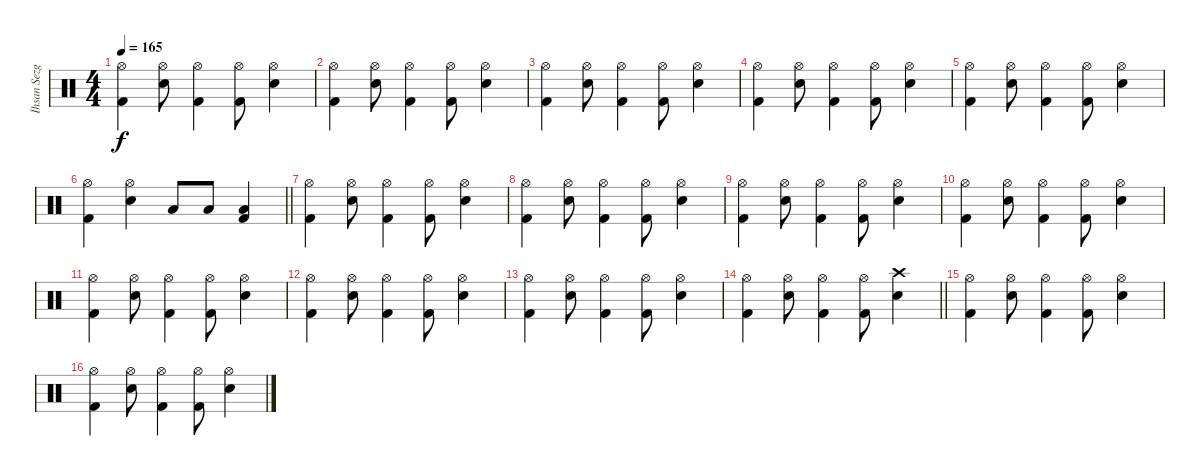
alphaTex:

\track ("İhsan Sezgin" "İhsan Sezg") {instrument percussion}
\staff {score}
\articulation defaults
\ts (4 4)
\tempo 165
\clef neutral
\ks c
("Hi-Hat (open)" "Kick (hit) 2").4{dy f} ("Snare (hit) 2" "Hi-Hat (open)").8 ("Hi-Hat (open)" "Kick (hit) 2").4 ("Hi-Hat (open)" "Kick (hit) 2").8 ("Snare (hit) 2" "Hi-Hat (open)").4 |
("Hi-Hat (open)" "Kick (hit) 2").4 ("Snare (hit) 2" "Hi-Hat (open)").8 ("Hi-Hat (open)" "Kick (hit) 2").4 ("Hi-Hat (open)" "Kick (hit) 2").8 ("Snare (hit) 2" "Hi-Hat (open)").4 |
("Hi-Hat (open)" "Kick (hit) 2").4 ("Snare (hit) 2" "Hi-Hat (open)").8 ("Hi-Hat (open)" "Kick (hit) 2").4 ("Hi-Hat (open)" "Kick (hit) 2").8 ("Snare (hit) 2" "Hi-Hat (open)").4 |
("Hi-Hat (open)" "Kick (hit) 2").4 ("Snare (hit) 2" "Hi-Hat (open)").8 ("Hi-Hat (open)" "Kick (hit) 2").4 ("Hi-Hat (open)" "Kick (hit) 2").8 ("Snare (hit) 2" "Hi-Hat (open)").4 |
("Hi-Hat (open)" "Kick (hit) 2").4 ("Snare (hit) 2" "Hi-Hat (open)").8 ("Hi-Hat (open)" "Kick (hit) 2").4 ("Hi-Hat (open)" "Kick (hit) 2").8 ("Snare (hit) 2" "Hi-Hat (open)").4 |
\barLineRight lightlight
("Hi-Hat (open)" "Kick (hit) 2").4 ("Snare (hit) 2" "Hi-Hat (open)").4 "Low Tom (hit)".8 "Low Tom (hit)".8 ("Kick (hit) 2" "Low Tom (hit)").4 |
("Hi-Hat (open)" "Kick (hit) 2").4 ("Hi-Hat (open)" "Snare (hit) 2").8 ("Hi-Hat (open)" "Kick (hit) 2").4 ("Hi-Hat (open)" "Kick (hit) 2").8 ("Hi-Hat (open)" "Snare (hit) 2").4 |
("Hi-Hat (open)" "Kick (hit) 2").4 ("Hi-Hat (open)" "Snare (hit) 2").8 ("Hi-Hat (open)" "Kick (hit) 2").4 ("Hi-Hat (open)" "Kick (hit) 2").8 ("Hi-Hat (open)" "Snare (hit) 2").4 |
("Hi-Hat (open)" "Kick (hit) 2").4 ("Hi-Hat (open)" "Snare (hit) 2").8 ("Hi-Hat (open)" "Kick (hit) 2").4 ("Hi-Hat (open)" "Kick (hit) 2").8 ("Hi-Hat (open)" "Snare (hit) 2").4 |
("Hi-Hat (open)" "Kick (hit) 2").4 ("Hi-Hat (open)" "Snare (hit) 2").8 ("Hi-Hat (open)" "Kick (hit) 2").4 ("Hi-Hat (open)" "Kick (hit) 2").8 ("Hi-Hat (open)" "Snare (hit) 2").4 |
("Hi-Hat (open)" "Kick (hit) 2").4 ("Hi-Hat (open)" "Snare (hit) 2").8 ("Hi-Hat (open)" "Kick (hit) 2").4 ("Hi-Hat (open)" "Kick (hit) 2").8 ("Hi-Hat (open)" "Snare (hit) 2").4 |
("Hi-Hat (open)" "Kick (hit) 2").4 ("Hi-Hat (open)" "Snare (hit) 2").8 ("Hi-Hat (open)" "Kick (hit) 2").4 ("Hi-Hat (open)" "Kick (hit) 2").8 ("Hi-Hat (open)" "Snare (hit) 2").4 |
("Hi-Hat (open)" "Kick (hit) 2").4 ("Hi-Hat (open)" "Snare (hit) 2").8 ("Hi-Hat (open)" "Kick (hit) 2").4 ("Hi-Hat (open)" "Kick (hit) 2").8 ("Hi-Hat (open)" "Snare (hit) 2").4 |
\barLineRight lightlight
("Hi-Hat (open)" "Kick (hit) 2").4 ("Hi-Hat (open)" "Snare (hit) 2").8 ("Hi-Hat (open)" "Kick (hit) 2").4 ("Hi-Hat (open)" "Kick (hit) 2").8 ("Crash high (hit)" "Snare (hit) 2").4 |
("Hi-Hat (open)" "Kick (hit) 2").4 ("Hi-Hat (open)" "Snare (hit) 2").8 ("Hi-Hat (open)" "Kick (hit) 2").4 ("Hi-Hat (open)" "Kick (hit) 2").8 ("Hi-Hat (open)" "Snare (hit) 2").4 |
("Hi-Hat (open)" "Kick (hit) 2").4 ("Hi-Hat (open)" "Snare (hit) 2").8 ("Hi-Hat (open)" "Kick (hit) 2").4 ("Hi-Hat (open)" "Kick (hit) 2").8 ("Hi-Hat (open)" "Snare (hit) 2").4
